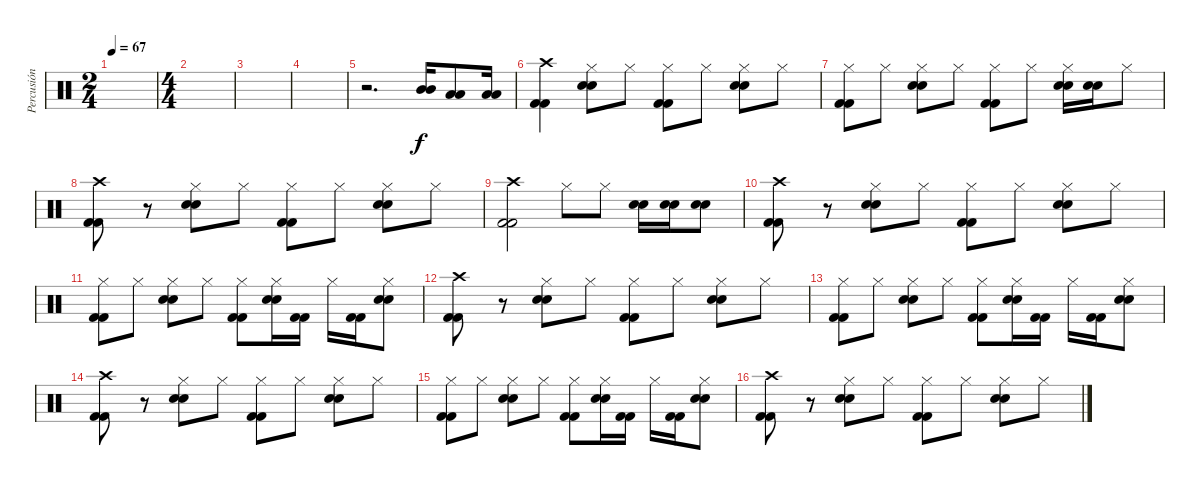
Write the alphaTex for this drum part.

\track ("Percusión" "Percusión") {instrument percussion}
\staff {score}
\articulation defaults
\ts (2 4)
\tempo 67
\clef neutral
\ks c
|
\ts (4 4)
|
|
|
r.2{d} ("Mid Tom (hit)" "Mid Tom (hit)").16 ("Low Tom (hit)" "Low Tom (hit)").8 ("Low Tom (hit)" "Low Tom (hit)").16 |
("Crash high (hit)" "Kick (hit) 2" "Kick (hit) 2").4 ("Hi-Hat (closed)" "Electric Snare (hit)" "Electric Snare (hit)").8 "Hi-Hat (closed)".8 ("Hi-Hat (closed)" "Kick (hit) 2" "Kick (hit) 2").8 "Hi-Hat (closed)".8 ("Hi-Hat (closed)" "Electric Snare (hit)" "Electric Snare (hit)").8 "Hi-Hat (closed)".8 |
("Hi-Hat (closed)" "Kick (hit) 2" "Kick (hit) 2").8 "Hi-Hat (closed)".8 ("Hi-Hat (closed)" "Electric Snare (hit)" "Electric Snare (hit)").8 "Hi-Hat (closed)".8 ("Hi-Hat (closed)" "Kick (hit) 2" "Kick (hit) 2").8 "Hi-Hat (closed)".8 ("Hi-Hat (closed)" "Electric Snare (hit)" "Electric Snare (hit)").16 ("Electric Snare (hit)" "Electric Snare (hit)").16 "Hi-Hat (closed)".8 |
("Crash high (hit)" "Kick (hit) 2" "Kick (hit) 2").8 r.8 ("Hi-Hat (closed)" "Electric Snare (hit)" "Electric Snare (hit)").8 "Hi-Hat (closed)".8 ("Hi-Hat (closed)" "Kick (hit) 2" "Kick (hit) 2").8 "Hi-Hat (closed)".8 ("Hi-Hat (closed)" "Electric Snare (hit)" "Electric Snare (hit)").8 "Hi-Hat (closed)".8 |
("Crash high (hit)" "Kick (hit) 2" "Kick (hit) 2").2 "Hi-Hat (closed)".8 "Hi-Hat (closed)".8 ("Electric Snare (hit)" "Electric Snare (hit)").16 ("Electric Snare (hit)" "Electric Snare (hit)").16 ("Electric Snare (hit)" "Electric Snare (hit)").8 |
("Crash high (hit)" "Kick (hit) 2" "Kick (hit) 2").8 r.8 ("Hi-Hat (closed)" "Electric Snare (hit)" "Electric Snare (hit)").8 "Hi-Hat (closed)".8 ("Hi-Hat (closed)" "Kick (hit) 2" "Kick (hit) 2").8 "Hi-Hat (closed)".8 ("Hi-Hat (closed)" "Electric Snare (hit)" "Electric Snare (hit)").8 "Hi-Hat (closed)".8 |
("Hi-Hat (closed)" "Kick (hit) 2" "Kick (hit) 2").8 "Hi-Hat (closed)".8 ("Hi-Hat (closed)" "Electric Snare (hit)" "Electric Snare (hit)").8 "Hi-Hat (closed)".8 ("Hi-Hat (closed)" "Kick (hit) 2" "Kick (hit) 2").8 ("Hi-Hat (closed)" "Electric Snare (hit)" "Electric Snare (hit)").16 ("Kick (hit) 2" "Kick (hit) 2").16 "Hi-Hat (closed)".16 ("Kick (hit) 2" "Kick (hit) 2").16 ("Hi-Hat (closed)" "Electric Snare (hit)" "Electric Snare (hit)").8 |
("Crash high (hit)" "Kick (hit) 2" "Kick (hit) 2").8 r.8 ("Hi-Hat (closed)" "Electric Snare (hit)" "Electric Snare (hit)").8 "Hi-Hat (closed)".8 ("Hi-Hat (closed)" "Kick (hit) 2" "Kick (hit) 2").8 "Hi-Hat (closed)".8 ("Hi-Hat (closed)" "Electric Snare (hit)" "Electric Snare (hit)").8 "Hi-Hat (closed)".8 |
("Hi-Hat (closed)" "Kick (hit) 2" "Kick (hit) 2").8 "Hi-Hat (closed)".8 ("Hi-Hat (closed)" "Electric Snare (hit)" "Electric Snare (hit)").8 "Hi-Hat (closed)".8 ("Hi-Hat (closed)" "Kick (hit) 2" "Kick (hit) 2").8 ("Hi-Hat (closed)" "Electric Snare (hit)" "Electric Snare (hit)").16 ("Kick (hit) 2" "Kick (hit) 2").16 "Hi-Hat (closed)".16 ("Kick (hit) 2" "Kick (hit) 2").16 ("Hi-Hat (closed)" "Electric Snare (hit)" "Electric Snare (hit)").8 |
("Crash high (hit)" "Kick (hit) 2" "Kick (hit) 2").8 r.8 ("Hi-Hat (closed)" "Electric Snare (hit)" "Electric Snare (hit)").8 "Hi-Hat (closed)".8 ("Hi-Hat (closed)" "Kick (hit) 2" "Kick (hit) 2").8 "Hi-Hat (closed)".8 ("Hi-Hat (closed)" "Electric Snare (hit)" "Electric Snare (hit)").8 "Hi-Hat (closed)".8 |
("Hi-Hat (closed)" "Kick (hit) 2" "Kick (hit) 2").8 "Hi-Hat (closed)".8 ("Hi-Hat (closed)" "Electric Snare (hit)" "Electric Snare (hit)").8 "Hi-Hat (closed)".8 ("Hi-Hat (closed)" "Kick (hit) 2" "Kick (hit) 2").8 ("Hi-Hat (closed)" "Electric Snare (hit)" "Electric Snare (hit)").16 ("Kick (hit) 2" "Kick (hit) 2").16 "Hi-Hat (closed)".16 ("Kick (hit) 2" "Kick (hit) 2").16 ("Hi-Hat (closed)" "Electric Snare (hit)" "Electric Snare (hit)").8 |
("Crash high (hit)" "Kick (hit) 2" "Kick (hit) 2").8 r.8 ("Hi-Hat (closed)" "Electric Snare (hit)" "Electric Snare (hit)").8 "Hi-Hat (closed)".8 ("Hi-Hat (closed)" "Kick (hit) 2" "Kick (hit) 2").8 "Hi-Hat (closed)".8 ("Hi-Hat (closed)" "Electric Snare (hit)" "Electric Snare (hit)").8 "Hi-Hat (closed)".8
